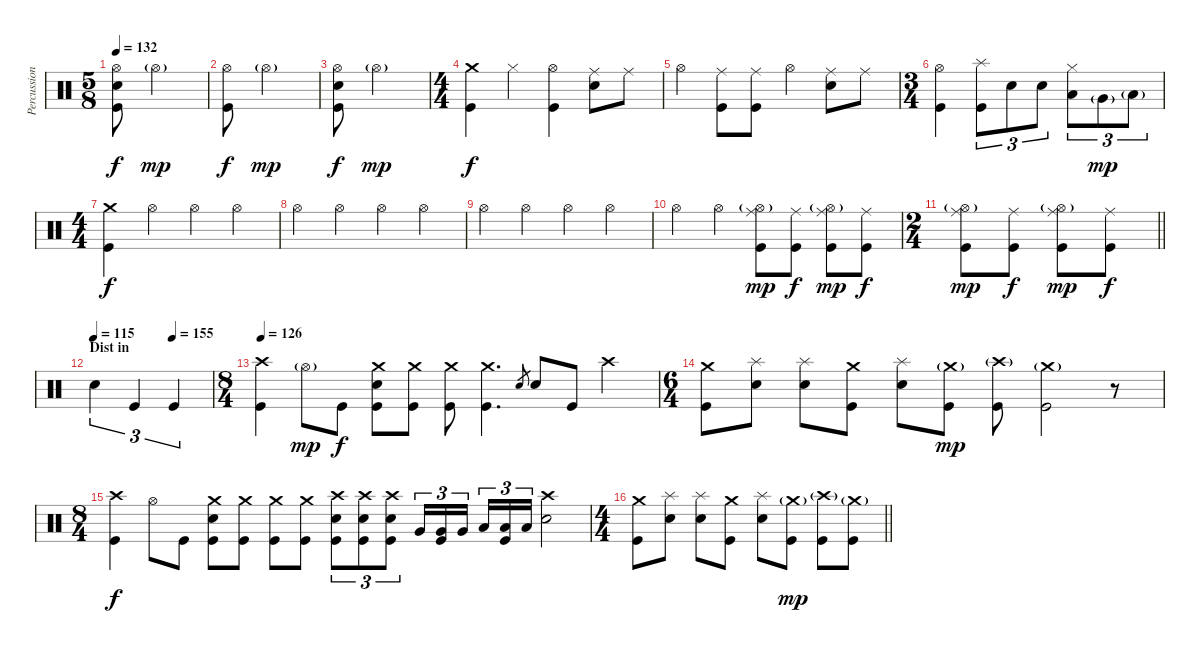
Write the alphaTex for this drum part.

\track ("Percussion" "Percussion") {instrument percussion}
\staff {score}
\articulation defaults
\ts (5 8)
\tempo 132
\clef neutral
\ks c
("Kick (hit)" "Snare (hit) 2" "Hi-Hat (open)").8{dy f} "Hi-Hat (open)"{g}.2{dy mp} |
("Kick (hit)" "Hi-Hat (open)").8{dy f} "Hi-Hat (open)"{g}.2{dy mp} |
("Kick (hit)" "Snare (hit) 2" "Hi-Hat (open)").8{dy f} "Hi-Hat (open)"{g}.2{dy mp} |
\ts (4 4)
("Kick (hit)" "Crash medium (hit)").4{dy f} "Hi-Hat (closed)".4 ("Kick (hit)" "Hi-Hat (open)").4 ("Ride (middle)" "Snare (hit) 2").8 "Ride (middle)".8 |
"Hi-Hat (open)".4 ("Kick (hit)" "Ride (middle)").8 ("Kick (hit)" "Ride (middle)").8 "Hi-Hat (open)".4 ("Ride (middle)" "Snare (hit) 2").8 "Ride (middle)".8 |
\ts (3 4)
("Kick (hit)" "Hi-Hat (open)").4 ("Kick (hit)" "Splash (hit)").8{tu (3 2)} "Snare (hit) 2".8{tu (3 2)} "Snare (hit) 2".8{tu (3 2)} ("Low Tom (hit)" "Hi-Hat (closed)").8{tu (3 2)} "Very Low Tom (hit)"{g}.8{tu (3 2) dy mp} "Low Floor Tom (hit)"{g}.8{tu (3 2)} |
\ts (4 4)
("Kick (hit)" "Crash medium (hit)").4{dy f} "Hi-Hat (open)".4 "Hi-Hat (open)".4 "Hi-Hat (open)".4 |
"Hi-Hat (open)".4 "Hi-Hat (open)".4 "Hi-Hat (open)".4 "Hi-Hat (open)".4 |
"Hi-Hat (open)".4 "Hi-Hat (open)".4 "Hi-Hat (open)".4 "Hi-Hat (open)".4 |
"Hi-Hat (open)".4 "Hi-Hat (open)".4 ("Kick (hit)" "Ride (middle)" "Hi-Hat (open)"{g}).8{dy mp} ("Kick (hit)" "Ride (middle)").8{dy f} ("Kick (hit)" "Ride (middle)" "Hi-Hat (open)"{g}).8{dy mp} ("Kick (hit)" "Ride (middle)").8{dy f} |
\ts (2 4)
\barLineRight lightlight
("Kick (hit)" "Ride (middle)" "Hi-Hat (open)"{g}).8{dy mp} ("Kick (hit)" "Ride (middle)").8{dy f} ("Kick (hit)" "Ride (middle)" "Hi-Hat (open)"{g}).8{dy mp} ("Kick (hit)" "Ride (middle)").8{dy f} |
\section ("" "Dist in")
\tempo 115
\tempo (155 0.6666666666666666)
"Snare (hit) 2".4{tu (3 2)} "Kick (hit)".4{tu (3 2)} "Kick (hit)".4{tu (3 2)} |
\ts (8 4)
\tempo 126
("Kick (hit)" "Crash high (hit)").4{volume 13} "Hi-Hat (open)"{g}.8{dy mp} "Kick (hit)".8{dy f} ("Kick (hit)" "Snare (hit) 2" "Crash medium (hit)").8 ("Kick (hit)" "Crash medium (hit)").8 ("Kick (hit)" "Crash medium (hit)").8 ("Kick (hit)" "Crash medium (hit)").4{d} "Snare (hit) 2".8{gr} "Snare (hit) 2".8 "Kick (hit)".8 "Crash high (hit)".2 |
\ts (6 4)
("Kick (hit)" "Crash medium (hit)").8 ("Snare (hit) 2" "Splash (hit)").8 ("Snare (hit) 2" "Splash (hit)").8 ("Kick (hit)" "Crash medium (hit)").8 ("Splash (hit)" "Snare (hit) 2").8 ("Kick (hit)" "Crash medium (hit)"{g}).8{dy mp} ("Kick (hit)" "Crash high (hit)"{g}).8 ("Kick (hit)" "Crash medium (hit)"{g}).2 r.8 |
\ts (8 4)
("Kick (hit)" "Crash high (hit)").4{dy f} "Hi-Hat (open)".8 "Kick (hit)".8 ("Kick (hit)" "Snare (hit) 2" "Crash medium (hit)").8 ("Kick (hit)" "Crash medium (hit)").8 ("Kick (hit)" "Crash medium (hit)").8 ("Kick (hit)" "Crash medium (hit)").8 ("Kick (hit)" "Snare (hit) 2" "Crash high (hit)").8{tu (3 2)} ("Kick (hit)" "Snare (hit) 2" "Crash high (hit)").8{tu (3 2)} ("Kick (hit)" "Snare (hit) 2" "Crash high (hit)").8{tu (3 2)} "Very Low Tom (hit)".16{tu (3 2)} ("Kick (hit)" "Very Low Tom (hit)").16{tu (3 2)} "Very Low Tom (hit)".16{tu (3 2) beam splitsecondary} "Low Floor Tom (hit)".16{tu (3 2)} ("Kick (hit)" "Low Floor Tom (hit)").16{tu (3 2)} "Low Floor Tom (hit)".16{tu (3 2)} ("Crash high (hit)" "Snare (hit) 2").2 |
\ts (4 4)
\barLineRight lightlight
("Kick (hit)" "Crash medium (hit)").8 ("Snare (hit) 2" "Splash (hit)").8 ("Snare (hit) 2" "Splash (hit)").8 ("Kick (hit)" "Crash medium (hit)").8 ("Splash (hit)" "Snare (hit) 2").8 ("Kick (hit)" "Crash medium (hit)"{g}).8{dy mp} ("Kick (hit)" "Crash high (hit)"{g}).8 ("Kick (hit)" "Crash medium (hit)"{g}).8
